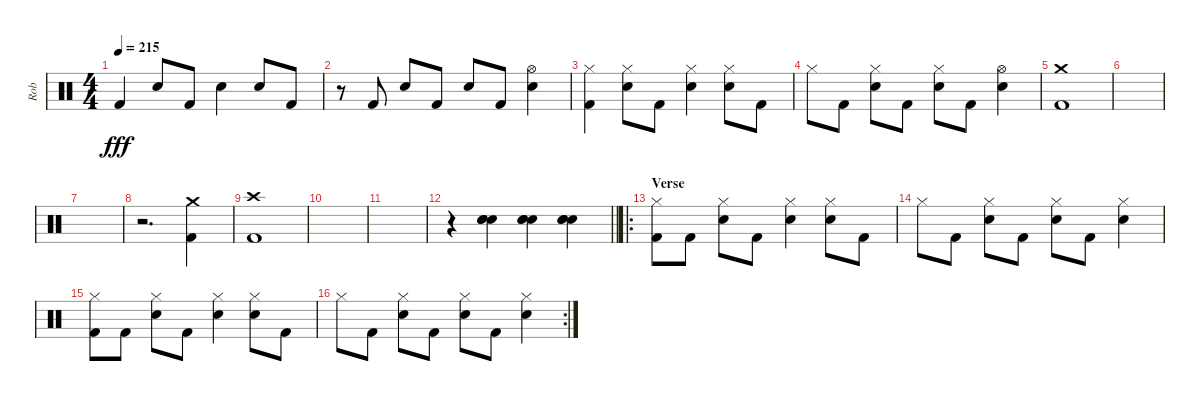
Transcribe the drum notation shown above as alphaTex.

\track ("Rob" "Rob") {instrument percussion}
\staff {score}
\articulation defaults
\ts (4 4)
\tempo 215
\clef neutral
\ks c "Kick (hit) 2".4{dy fff volume 16} "Electric Snare (hit)".8 "Kick (hit) 2".8 "Electric Snare (hit)".4 "Electric Snare (hit)".8 "Kick (hit) 2".8
|
r.8 "Kick (hit) 2".8 "Electric Snare (hit)".8 "Kick (hit) 2".8 "Electric Snare (hit)".8 "Kick (hit) 2".8 ("Hi-Hat (open)" "Electric Snare (hit)").4 |
("Hi-Hat (closed)" "Kick (hit) 2").4 ("Hi-Hat (closed)" "Electric Snare (hit)").8 "Kick (hit) 2".8 ("Hi-Hat (closed)" "Electric Snare (hit)").4 ("Hi-Hat (closed)" "Electric Snare (hit)").8 "Kick (hit) 2".8 |
"Hi-Hat (closed)".8 "Kick (hit) 2".8 ("Hi-Hat (closed)" "Electric Snare (hit)").8 "Kick (hit) 2".8 ("Hi-Hat (closed)" "Electric Snare (hit)").8 "Kick (hit) 2".8 ("Hi-Hat (open)" "Electric Snare (hit)").4 |
("Crash medium (hit)" "Kick (hit) 2").1 |
|
|
r.2{d} ("Crash medium (hit)" "Kick (hit) 2").4 |
("Crash high (hit)" "Kick (hit) 2").1 |
|
|
\barLineRight lightlight
r.4 ("Hand Clap (hit)" "Hand Clap (hit)" "Hand Clap (hit)").4 ("Hand Clap (hit)" "Hand Clap (hit)" "Hand Clap (hit)").4 ("Hand Clap (hit)" "Hand Clap (hit)" "Hand Clap (hit)").4 |
\ro
\section ("" "Verse")
("Hi-Hat (closed)" "Kick (hit) 2").8{volume 16} "Kick (hit) 2".8 ("Hi-Hat (closed)" "Electric Snare (hit)").8 "Kick (hit) 2".8 ("Hi-Hat (closed)" "Electric Snare (hit)").4 ("Hi-Hat (closed)" "Electric Snare (hit)").8 "Kick (hit) 2".8 |
"Hi-Hat (closed)".8 "Kick (hit) 2".8 ("Hi-Hat (closed)" "Electric Snare (hit)").8 "Kick (hit) 2".8 ("Hi-Hat (closed)" "Electric Snare (hit)").8 "Kick (hit) 2".8 ("Hi-Hat (closed)" "Electric Snare (hit)").4 |
("Hi-Hat (closed)" "Kick (hit) 2").8 "Kick (hit) 2".8 ("Hi-Hat (closed)" "Electric Snare (hit)").8 "Kick (hit) 2".8 ("Hi-Hat (closed)" "Electric Snare (hit)").4 ("Hi-Hat (closed)" "Electric Snare (hit)").8 "Kick (hit) 2".8 |
\rc 2 "Hi-Hat (closed)".8 "Kick (hit) 2".8
("Hi-Hat (closed)" "Electric Snare (hit)").8 "Kick (hit) 2".8 ("Hi-Hat (closed)" "Electric Snare (hit)").8 "Kick (hit) 2".8 ("Hi-Hat (closed)" "Electric Snare (hit)").4
